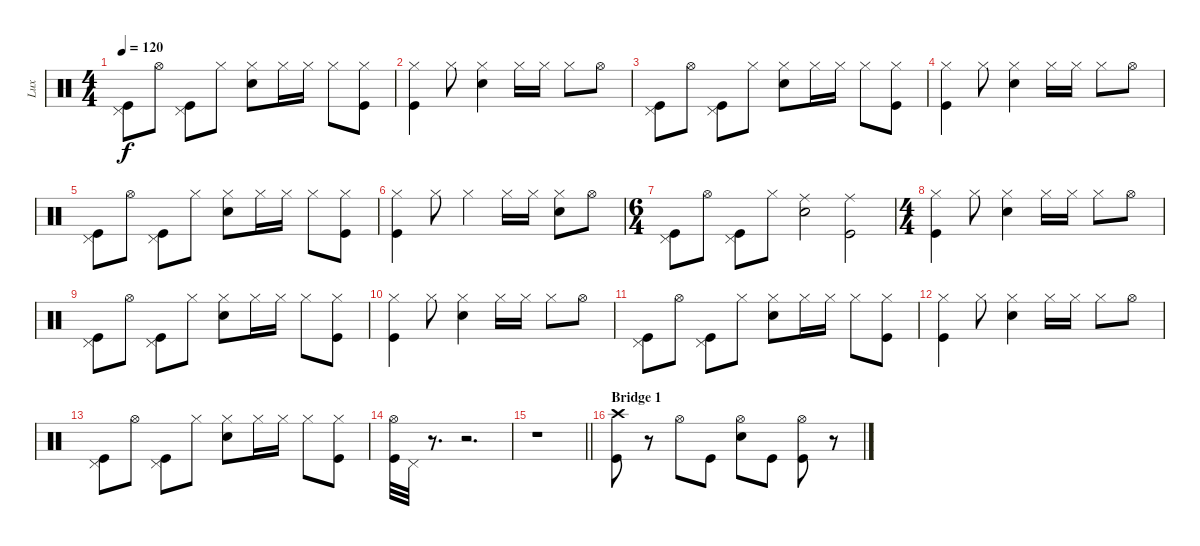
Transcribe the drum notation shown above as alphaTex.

\track ("Lux" "Lux") {instrument percussion}
\staff {score}
\articulation defaults
\ts (4 4)
\tempo 120
\clef neutral
\ks c
("Kick (hit)" "Pedal Hi-Hat (hit)").8{dy f} "Hi-Hat (open)".8 ("Kick (hit)" "Pedal Hi-Hat (hit)").8 "Hi-Hat (closed)".8 ("Hi-Hat (closed)" "Snare (hit) 2").8 "Hi-Hat (closed)".16 "Hi-Hat (closed)".16 "Hi-Hat (closed)".8 ("Hi-Hat (closed)" "Kick (hit)").8 |
("Hi-Hat (closed)" "Kick (hit)").4 "Hi-Hat (closed)".8 ("Hi-Hat (closed)" "Snare (hit) 2").4 "Hi-Hat (closed)".16 "Hi-Hat (closed)".16 "Hi-Hat (closed)".8 "Hi-Hat (open)".8 |
("Kick (hit)" "Pedal Hi-Hat (hit)").8 "Hi-Hat (open)".8 ("Kick (hit)" "Pedal Hi-Hat (hit)").8 "Hi-Hat (closed)".8 ("Hi-Hat (closed)" "Snare (hit) 2").8 "Hi-Hat (closed)".16 "Hi-Hat (closed)".16 "Hi-Hat (closed)".8 ("Hi-Hat (closed)" "Kick (hit)").8 |
("Hi-Hat (closed)" "Kick (hit)").4 "Hi-Hat (closed)".8 ("Hi-Hat (closed)" "Snare (hit) 2").4 "Hi-Hat (closed)".16 "Hi-Hat (closed)".16 "Hi-Hat (closed)".8 "Hi-Hat (open)".8 |
("Kick (hit)" "Pedal Hi-Hat (hit)").8 "Hi-Hat (open)".8 ("Kick (hit)" "Pedal Hi-Hat (hit)").8 "Hi-Hat (closed)".8 ("Hi-Hat (closed)" "Snare (hit) 2").8 "Hi-Hat (closed)".16 "Hi-Hat (closed)".16 "Hi-Hat (closed)".8 ("Hi-Hat (closed)" "Kick (hit)").8 |
("Hi-Hat (closed)" "Kick (hit)").4 "Hi-Hat (closed)".8 "Hi-Hat (closed)".4 "Hi-Hat (closed)".16 "Hi-Hat (closed)".16 ("Hi-Hat (closed)" "Snare (hit) 2").8 "Hi-Hat (open)".8 |
\ts (6 4)
("Kick (hit)" "Pedal Hi-Hat (hit)").8 "Hi-Hat (open)".8 ("Kick (hit)" "Pedal Hi-Hat (hit)").8 "Hi-Hat (closed)".8 ("Ride (middle)" "Snare (hit) 2").2 ("Ride (middle)" "Kick (hit)").2 |
\ts (4 4)
("Hi-Hat (closed)" "Kick (hit)").4 "Hi-Hat (closed)".8 ("Hi-Hat (closed)" "Snare (hit) 2").4 "Hi-Hat (closed)".16 "Hi-Hat (closed)".16 "Hi-Hat (closed)".8 "Hi-Hat (open)".8 |
("Kick (hit)" "Pedal Hi-Hat (hit)").8 "Hi-Hat (open)".8 ("Kick (hit)" "Pedal Hi-Hat (hit)").8 "Hi-Hat (closed)".8 ("Hi-Hat (closed)" "Snare (hit) 2").8 "Hi-Hat (closed)".16 "Hi-Hat (closed)".16 "Hi-Hat (closed)".8 ("Hi-Hat (closed)" "Kick (hit)").8 |
("Hi-Hat (closed)" "Kick (hit)").4 "Hi-Hat (closed)".8 ("Hi-Hat (closed)" "Snare (hit) 2").4 "Hi-Hat (closed)".16 "Hi-Hat (closed)".16 "Hi-Hat (closed)".8 "Hi-Hat (open)".8 |
("Kick (hit)" "Pedal Hi-Hat (hit)").8 "Hi-Hat (open)".8 ("Kick (hit)" "Pedal Hi-Hat (hit)").8 "Hi-Hat (closed)".8 ("Hi-Hat (closed)" "Snare (hit) 2").8 "Hi-Hat (closed)".16 "Hi-Hat (closed)".16 "Hi-Hat (closed)".8 ("Hi-Hat (closed)" "Kick (hit)").8 |
("Hi-Hat (closed)" "Kick (hit)").4 "Hi-Hat (closed)".8 ("Hi-Hat (closed)" "Snare (hit) 2").4 "Hi-Hat (closed)".16 "Hi-Hat (closed)".16 "Hi-Hat (closed)".8 "Hi-Hat (open)".8 |
("Kick (hit)" "Pedal Hi-Hat (hit)").8 "Hi-Hat (open)".8 ("Kick (hit)" "Pedal Hi-Hat (hit)").8 "Hi-Hat (closed)".8 ("Hi-Hat (closed)" "Snare (hit) 2").8 "Hi-Hat (closed)".16 "Hi-Hat (closed)".16 "Hi-Hat (closed)".8 ("Hi-Hat (closed)" "Kick (hit)").8 |
("Hi-Hat (open)" "Kick (hit)").32 "Pedal Hi-Hat (hit)".32 r.8{d} r.2{d} |
\barLineRight lightlight
r.1 |
\section ("" "Bridge 1")
("Crash high (hit)" "Kick (hit)").8 r.8 "Hi-Hat (open)".8 "Kick (hit)".8 ("Hi-Hat (open)" "Snare (hit) 2").8 "Kick (hit)".8 ("Hi-Hat (open)" "Kick (hit)").8 r.8
